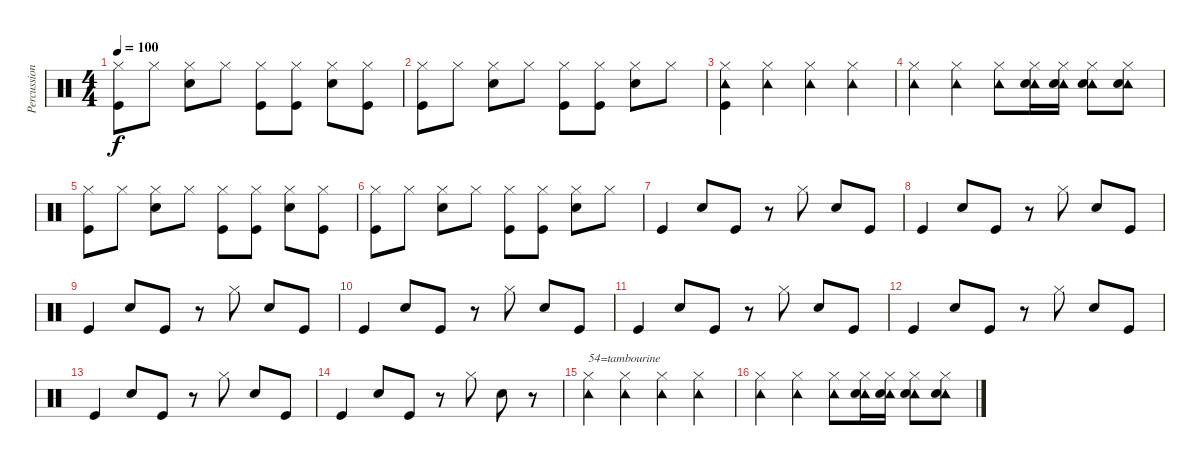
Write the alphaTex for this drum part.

\track ("Percussion" "Percussion") {instrument percussion}
\staff {score}
\articulation defaults
\ts (4 4)
\tempo 100
\clef neutral
\ks c
("Hi-Hat (closed)" "Kick (hit)").8{dy f} "Hi-Hat (closed)".8 ("Hi-Hat (closed)" "Snare (hit) 2").8 "Hi-Hat (closed)".8 ("Hi-Hat (closed)" "Kick (hit)").8 ("Hi-Hat (closed)" "Kick (hit)").8 ("Hi-Hat (closed)" "Snare (hit) 2").8 ("Hi-Hat (closed)" "Kick (hit)").8 |
("Hi-Hat (closed)" "Kick (hit)").8 "Hi-Hat (closed)".8 ("Hi-Hat (closed)" "Snare (hit) 2").8 "Hi-Hat (closed)".8 ("Hi-Hat (closed)" "Kick (hit)").8 ("Hi-Hat (closed)" "Kick (hit)").8 ("Hi-Hat (closed)" "Snare (hit) 2").8 "Hi-Hat (closed)".8 |
("Hi-Hat (closed)" "Tambourine (hit)" "Kick (hit)").4 ("Hi-Hat (closed)" "Tambourine (hit)").4 ("Hi-Hat (closed)" "Tambourine (hit)").4 ("Hi-Hat (closed)" "Tambourine (hit)").4 |
("Hi-Hat (closed)" "Tambourine (hit)").4 ("Hi-Hat (closed)" "Tambourine (hit)").4 ("Hi-Hat (closed)" "Tambourine (hit)").8 ("Hi-Hat (closed)" "Tambourine (hit)" "Snare (hit) 2").16 ("Hi-Hat (closed)" "Tambourine (hit)" "Snare (hit) 2").16 ("Hi-Hat (closed)" "Tambourine (hit)" "Snare (hit) 2").8 ("Hi-Hat (closed)" "Tambourine (hit)" "Snare (hit) 2").8 |
("Hi-Hat (closed)" "Kick (hit)").8 "Hi-Hat (closed)".8 ("Hi-Hat (closed)" "Snare (hit) 2").8 "Hi-Hat (closed)".8 ("Hi-Hat (closed)" "Kick (hit)").8 ("Hi-Hat (closed)" "Kick (hit)").8 ("Hi-Hat (closed)" "Snare (hit) 2").8 ("Hi-Hat (closed)" "Kick (hit)").8 |
("Hi-Hat (closed)" "Kick (hit)").8 "Hi-Hat (closed)".8 ("Hi-Hat (closed)" "Snare (hit) 2").8 "Hi-Hat (closed)".8 ("Hi-Hat (closed)" "Kick (hit)").8 ("Hi-Hat (closed)" "Kick (hit)").8 ("Hi-Hat (closed)" "Snare (hit) 2").8 "Hi-Hat (closed)".8 |
"Kick (hit)".4 "Snare (hit) 2".8 "Kick (hit)".8 r.8 "Hi-Hat (closed)".8 "Snare (hit) 2".8 "Kick (hit)".8 |
"Kick (hit)".4 "Snare (hit) 2".8 "Kick (hit)".8 r.8 "Hi-Hat (closed)".8 "Snare (hit) 2".8 "Kick (hit)".8 |
"Kick (hit)".4 "Snare (hit) 2".8 "Kick (hit)".8 r.8 "Hi-Hat (closed)".8 "Snare (hit) 2".8 "Kick (hit)".8 |
"Kick (hit)".4 "Snare (hit) 2".8 "Kick (hit)".8 r.8 "Hi-Hat (closed)".8 "Snare (hit) 2".8 "Kick (hit)".8 |
"Kick (hit)".4 "Snare (hit) 2".8 "Kick (hit)".8 r.8 "Hi-Hat (closed)".8 "Snare (hit) 2".8 "Kick (hit)".8 |
"Kick (hit)".4 "Snare (hit) 2".8 "Kick (hit)".8 r.8 "Hi-Hat (closed)".8 "Snare (hit) 2".8 "Kick (hit)".8 |
"Kick (hit)".4 "Snare (hit) 2".8 "Kick (hit)".8 r.8 "Hi-Hat (closed)".8 "Snare (hit) 2".8 "Kick (hit)".8 |
"Kick (hit)".4 "Snare (hit) 2".8 "Kick (hit)".8 r.8 "Hi-Hat (closed)".8 "Snare (hit) 2".8 r.8 |
("Hi-Hat (closed)" "Tambourine (hit)").4{txt "54=tambourine"} ("Hi-Hat (closed)" "Tambourine (hit)").4 ("Hi-Hat (closed)" "Tambourine (hit)").4 ("Hi-Hat (closed)" "Tambourine (hit)").4 |
("Hi-Hat (closed)" "Tambourine (hit)").4 ("Hi-Hat (closed)" "Tambourine (hit)").4 ("Hi-Hat (closed)" "Tambourine (hit)").8 ("Hi-Hat (closed)" "Tambourine (hit)" "Snare (hit) 2").16 ("Hi-Hat (closed)" "Tambourine (hit)" "Snare (hit) 2").16 ("Hi-Hat (closed)" "Tambourine (hit)" "Snare (hit) 2").8 ("Hi-Hat (closed)" "Tambourine (hit)" "Snare (hit) 2").8
